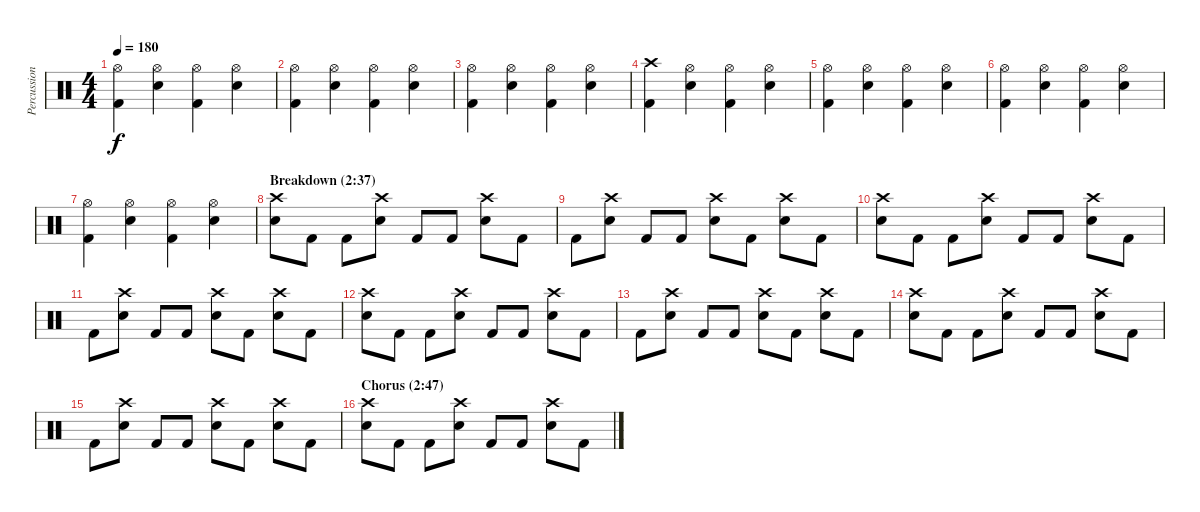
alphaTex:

\track ("Percussion" "Percussion") {instrument percussion}
\staff {score}
\articulation defaults
\ts (4 4)
\tempo 180
\clef neutral
\ks c
("Hi-Hat (open)" "Kick (hit) 2").4{dy f} ("Hi-Hat (open)" "Electric Snare (hit)").4 ("Hi-Hat (open)" "Kick (hit) 2").4 ("Hi-Hat (open)" "Electric Snare (hit)").4 |
("Hi-Hat (open)" "Kick (hit) 2").4 ("Hi-Hat (open)" "Electric Snare (hit)").4 ("Hi-Hat (open)" "Kick (hit) 2").4 ("Hi-Hat (open)" "Electric Snare (hit)").4 |
("Hi-Hat (open)" "Kick (hit) 2").4 ("Hi-Hat (open)" "Electric Snare (hit)").4 ("Hi-Hat (open)" "Kick (hit) 2").4 ("Hi-Hat (open)" "Electric Snare (hit)").4 |
("Crash high (hit)" "Kick (hit) 2").4 ("Hi-Hat (open)" "Electric Snare (hit)").4 ("Hi-Hat (open)" "Kick (hit) 2").4 ("Hi-Hat (open)" "Electric Snare (hit)").4 |
("Hi-Hat (open)" "Kick (hit) 2").4 ("Hi-Hat (open)" "Electric Snare (hit)").4 ("Hi-Hat (open)" "Kick (hit) 2").4 ("Hi-Hat (open)" "Electric Snare (hit)").4 |
("Hi-Hat (open)" "Kick (hit) 2").4 ("Hi-Hat (open)" "Electric Snare (hit)").4 ("Hi-Hat (open)" "Kick (hit) 2").4 ("Hi-Hat (open)" "Electric Snare (hit)").4 |
("Hi-Hat (open)" "Kick (hit) 2").4 ("Hi-Hat (open)" "Electric Snare (hit)").4 ("Hi-Hat (open)" "Kick (hit) 2").4 ("Hi-Hat (open)" "Electric Snare (hit)").4 |
\section ("" "Breakdown (2:37)")
("Crash high (hit)" "Electric Snare (hit)").8 "Kick (hit) 2".8 "Kick (hit) 2".8 ("Crash high (hit)" "Electric Snare (hit)").8 "Kick (hit) 2".8 "Kick (hit) 2".8 ("Crash high (hit)" "Electric Snare (hit)").8 "Kick (hit) 2".8 |
"Kick (hit) 2".8 ("Crash high (hit)" "Electric Snare (hit)").8 "Kick (hit) 2".8 "Kick (hit) 2".8 ("Crash high (hit)" "Electric Snare (hit)").8 "Kick (hit) 2".8 ("Crash high (hit)" "Electric Snare (hit)").8 "Kick (hit) 2".8 |
("Crash high (hit)" "Electric Snare (hit)").8 "Kick (hit) 2".8 "Kick (hit) 2".8 ("Crash high (hit)" "Electric Snare (hit)").8 "Kick (hit) 2".8 "Kick (hit) 2".8 ("Crash high (hit)" "Electric Snare (hit)").8 "Kick (hit) 2".8 |
"Kick (hit) 2".8 ("Crash high (hit)" "Electric Snare (hit)").8 "Kick (hit) 2".8 "Kick (hit) 2".8 ("Crash high (hit)" "Electric Snare (hit)").8 "Kick (hit) 2".8 ("Crash high (hit)" "Electric Snare (hit)").8 "Kick (hit) 2".8 |
("Crash high (hit)" "Electric Snare (hit)").8 "Kick (hit) 2".8 "Kick (hit) 2".8 ("Crash high (hit)" "Electric Snare (hit)").8 "Kick (hit) 2".8 "Kick (hit) 2".8 ("Crash high (hit)" "Electric Snare (hit)").8 "Kick (hit) 2".8 |
"Kick (hit) 2".8 ("Crash high (hit)" "Electric Snare (hit)").8 "Kick (hit) 2".8 "Kick (hit) 2".8 ("Crash high (hit)" "Electric Snare (hit)").8 "Kick (hit) 2".8 ("Crash high (hit)" "Electric Snare (hit)").8 "Kick (hit) 2".8 |
("Crash high (hit)" "Electric Snare (hit)").8 "Kick (hit) 2".8 "Kick (hit) 2".8 ("Crash high (hit)" "Electric Snare (hit)").8 "Kick (hit) 2".8 "Kick (hit) 2".8 ("Crash high (hit)" "Electric Snare (hit)").8 "Kick (hit) 2".8 |
"Kick (hit) 2".8 ("Crash high (hit)" "Electric Snare (hit)").8 "Kick (hit) 2".8 "Kick (hit) 2".8 ("Crash high (hit)" "Electric Snare (hit)").8 "Kick (hit) 2".8 ("Crash high (hit)" "Electric Snare (hit)").8 "Kick (hit) 2".8 |
\section ("" "Chorus (2:47)")
("Crash high (hit)" "Electric Snare (hit)").8 "Kick (hit) 2".8 "Kick (hit) 2".8 ("Crash high (hit)" "Electric Snare (hit)").8 "Kick (hit) 2".8 "Kick (hit) 2".8 ("Crash high (hit)" "Electric Snare (hit)").8 "Kick (hit) 2".8
